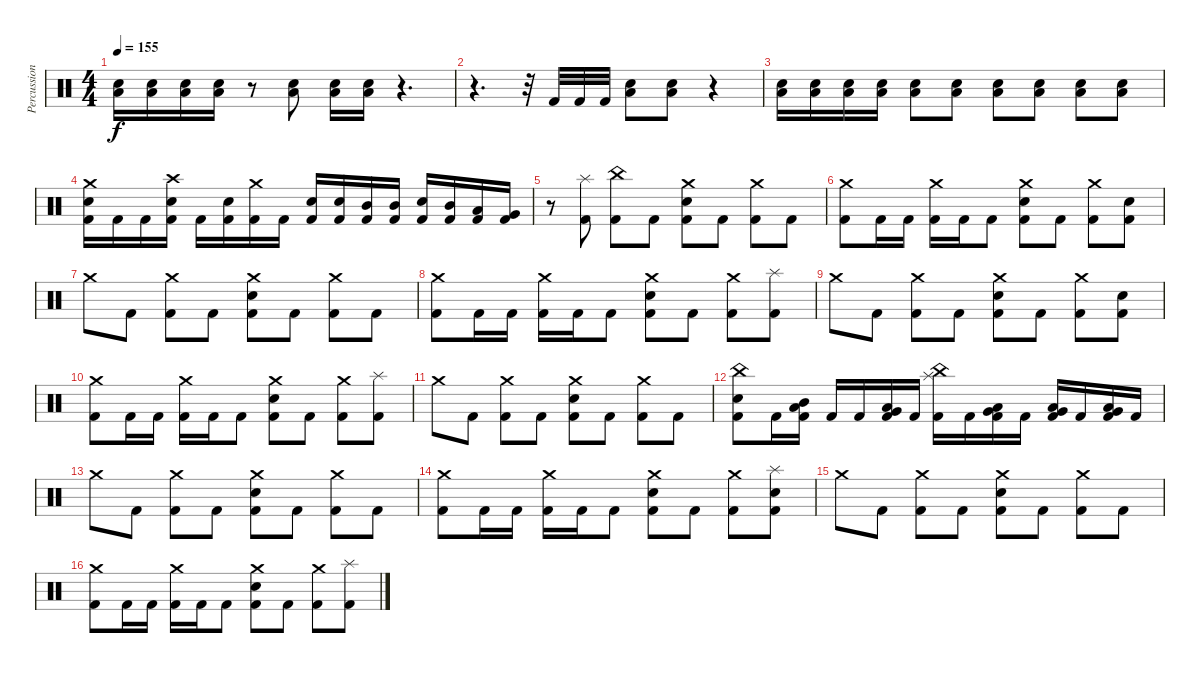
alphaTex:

\track ("Percussion" "Percussion") {instrument percussion}
\staff {score}
\articulation defaults
\ts (4 4)
\tempo 155
\clef neutral
\ks c
("Electric Snare (hit)" "Low Floor Tom (hit)").16{dy f} ("Electric Snare (hit)" "Low Floor Tom (hit)").16 ("Electric Snare (hit)" "Low Floor Tom (hit)").16 ("Electric Snare (hit)" "Low Floor Tom (hit)").16 r.8 ("Electric Snare (hit)" "Low Floor Tom (hit)").8 ("Electric Snare (hit)" "Low Floor Tom (hit)").16 ("Electric Snare (hit)" "Low Floor Tom (hit)").16 r.4{d} |
r.4{d} r.32 "Kick (hit) 2".32 "Kick (hit) 2".32 "Kick (hit) 2".32 ("Electric Snare (hit)" "Low Floor Tom (hit)").8 ("Electric Snare (hit)" "Low Floor Tom (hit)").8 r.4 |
("Electric Snare (hit)" "Low Floor Tom (hit)").16 ("Electric Snare (hit)" "Low Floor Tom (hit)").16 ("Electric Snare (hit)" "Low Floor Tom (hit)").16 ("Electric Snare (hit)" "Low Floor Tom (hit)").16 ("Electric Snare (hit)" "Low Floor Tom (hit)").8 ("Electric Snare (hit)" "Low Floor Tom (hit)").8 ("Electric Snare (hit)" "Low Floor Tom (hit)").8 ("Electric Snare (hit)" "Low Floor Tom (hit)").8 ("Electric Snare (hit)" "Low Floor Tom (hit)").8 ("Electric Snare (hit)" "Low Floor Tom (hit)").8 |
("Electric Snare (hit)" "Crash medium (hit)" "Kick (hit) 2").16 "Kick (hit) 2".16 "Kick (hit) 2".16 ("Electric Snare (hit)" "Crash high (hit)" "Kick (hit) 2").16 "Kick (hit) 2".16 ("Electric Snare (hit)" "Kick (hit) 2").16 ("Crash medium (hit)" "Kick (hit) 2").16 "Kick (hit) 2".16 ("Electric Snare (hit)" "Kick (hit) 2").16 ("Electric Snare (hit)" "Kick (hit) 2").16 ("Mid Tom (hit)" "Kick (hit) 2").16 ("Mid Tom (hit)" "Kick (hit) 2").16 ("Electric Snare (hit)" "Kick (hit) 2").16 ("Mid Tom (hit)" "Kick (hit) 2").16 ("Low Tom (hit)" "Kick (hit) 2").16 ("Very Low Tom (hit)" "Kick (hit) 2").16 |
r.8 ("Splash (hit)" "Kick (hit) 2").8 ("China (hit)" "Kick (hit) 2").8 "Kick (hit) 2".8 ("Electric Snare (hit)" "Crash medium (hit)" "Kick (hit) 2").8 "Kick (hit) 2".8 ("Crash medium (hit)" "Kick (hit) 2").8 "Kick (hit) 2".8 |
("Crash medium (hit)" "Kick (hit) 2").8 "Kick (hit) 2".16 "Kick (hit) 2".16 ("Crash medium (hit)" "Kick (hit) 2").16 "Kick (hit) 2".16 "Kick (hit) 2".8 ("Electric Snare (hit)" "Crash medium (hit)" "Kick (hit) 2").8 "Kick (hit) 2".8 ("Crash medium (hit)" "Kick (hit) 2").8 ("Electric Snare (hit)" "Kick (hit) 2").8 |
"Crash medium (hit)".8 "Kick (hit) 2".8 ("Crash medium (hit)" "Kick (hit) 2").8 "Kick (hit) 2".8 ("Electric Snare (hit)" "Crash medium (hit)" "Kick (hit) 2").8 "Kick (hit) 2".8 ("Crash medium (hit)" "Kick (hit) 2").8 "Kick (hit) 2".8 |
("Crash medium (hit)" "Kick (hit) 2").8 "Kick (hit) 2".16 "Kick (hit) 2".16 ("Crash medium (hit)" "Kick (hit) 2").16 "Kick (hit) 2".16 "Kick (hit) 2".8 ("Electric Snare (hit)" "Crash medium (hit)" "Kick (hit) 2").8 "Kick (hit) 2".8 ("Crash medium (hit)" "Kick (hit) 2").8 ("Splash (hit)" "Kick (hit) 2").8 |
"Crash medium (hit)".8 "Kick (hit) 2".8 ("Crash medium (hit)" "Kick (hit) 2").8 "Kick (hit) 2".8 ("Electric Snare (hit)" "Crash medium (hit)" "Kick (hit) 2").8 "Kick (hit) 2".8 ("Crash medium (hit)" "Kick (hit) 2").8 ("Electric Snare (hit)" "Kick (hit) 2").8 |
("Crash medium (hit)" "Kick (hit) 2").8 "Kick (hit) 2".16 "Kick (hit) 2".16 ("Crash medium (hit)" "Kick (hit) 2").16 "Kick (hit) 2".16 "Kick (hit) 2".8 ("Electric Snare (hit)" "Crash medium (hit)" "Kick (hit) 2").8 "Kick (hit) 2".8 ("Crash medium (hit)" "Kick (hit) 2").8 ("Splash (hit)" "Kick (hit) 2").8 |
"Crash medium (hit)".8 "Kick (hit) 2".8 ("Crash medium (hit)" "Kick (hit) 2").8 "Kick (hit) 2".8 ("Electric Snare (hit)" "Crash medium (hit)" "Kick (hit) 2").8 "Kick (hit) 2".8 ("Crash medium (hit)" "Kick (hit) 2").8 "Kick (hit) 2".8 |
("Electric Snare (hit)" "China (hit)" "Kick (hit) 2").8 "Kick (hit) 2".16 ("Mid Tom (hit)" "Low Tom (hit)" "Kick (hit) 2").16 "Kick (hit) 2".16 "Kick (hit) 2".16 ("Low Tom (hit)" "Very Low Tom (hit)" "Kick (hit) 2").16 "Kick (hit) 2".16 ("Splash (hit)" "China (hit)" "Kick (hit) 2").16 "Kick (hit) 2".16 ("Low Tom (hit)" "Very Low Tom (hit)" "Kick (hit) 2").16 "Kick (hit) 2".16 ("Very Low Tom (hit)" "Low Floor Tom (hit)" "Kick (hit) 2").16 "Kick (hit) 2".16 ("Very Low Tom (hit)" "Low Floor Tom (hit)" "Kick (hit) 2").16 "Kick (hit) 2".16 |
"Crash medium (hit)".8 "Kick (hit) 2".8 ("Crash medium (hit)" "Kick (hit) 2").8 "Kick (hit) 2".8 ("Electric Snare (hit)" "Crash medium (hit)" "Kick (hit) 2").8 "Kick (hit) 2".8 ("Crash medium (hit)" "Kick (hit) 2").8 "Kick (hit) 2".8 |
("Crash medium (hit)" "Kick (hit) 2").8 "Kick (hit) 2".16 "Kick (hit) 2".16 ("Crash medium (hit)" "Kick (hit) 2").16 "Kick (hit) 2".16 "Kick (hit) 2".8 ("Electric Snare (hit)" "Crash medium (hit)" "Kick (hit) 2").8 "Kick (hit) 2".8 ("Crash medium (hit)" "Kick (hit) 2").8 ("Electric Snare (hit)" "Splash (hit)" "Kick (hit) 2").8 |
"Crash medium (hit)".8 "Kick (hit) 2".8 ("Crash medium (hit)" "Kick (hit) 2").8 "Kick (hit) 2".8 ("Electric Snare (hit)" "Crash medium (hit)" "Kick (hit) 2").8 "Kick (hit) 2".8 ("Crash medium (hit)" "Kick (hit) 2").8 "Kick (hit) 2".8 |
("Crash medium (hit)" "Kick (hit) 2").8 "Kick (hit) 2".16 "Kick (hit) 2".16 ("Crash medium (hit)" "Kick (hit) 2").16 "Kick (hit) 2".16 "Kick (hit) 2".8 ("Electric Snare (hit)" "Crash medium (hit)" "Kick (hit) 2").8 "Kick (hit) 2".8 ("Crash medium (hit)" "Kick (hit) 2").8 ("Splash (hit)" "Kick (hit) 2").8
